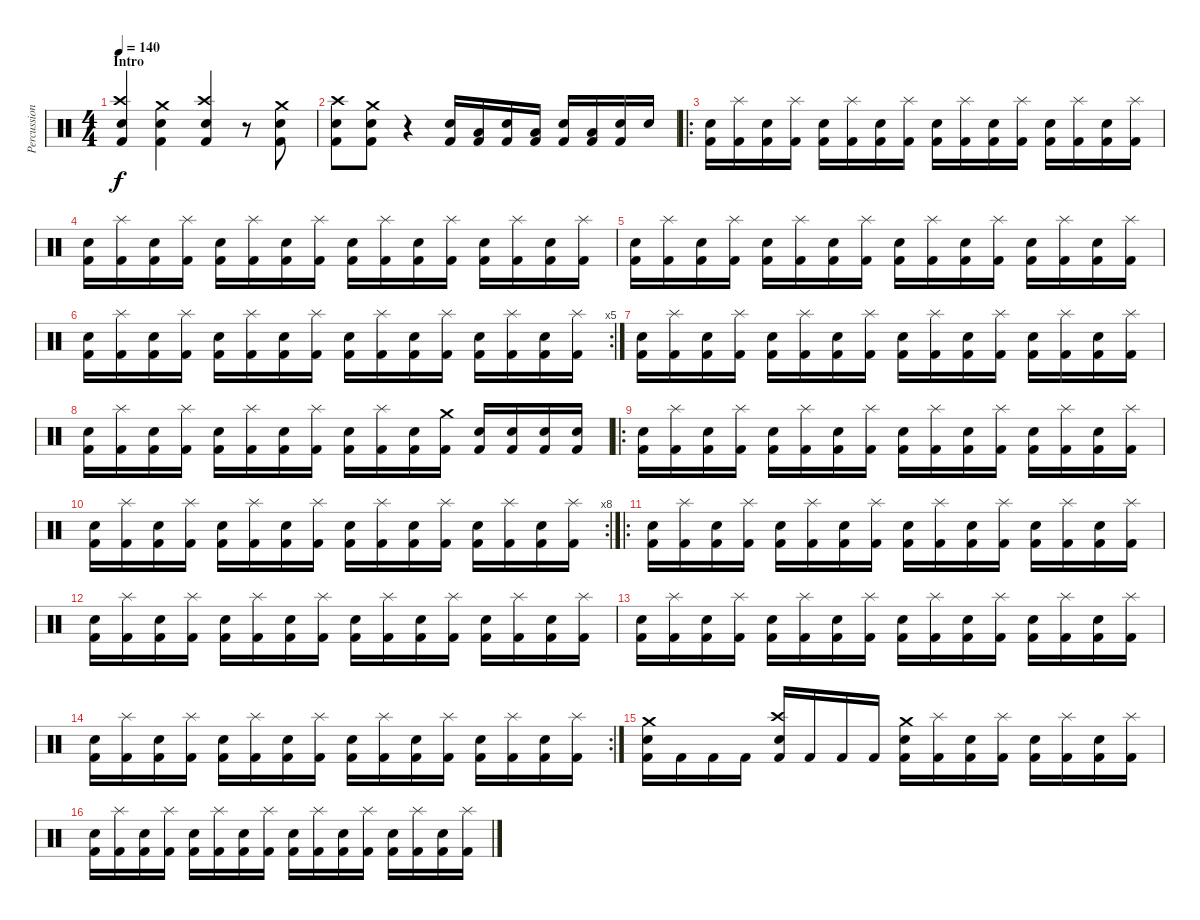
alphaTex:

\track ("Percussion" "Percussion") {instrument percussion}
\staff {score}
\articulation defaults
\ts (4 4)
\section ("" "Intro")
\tempo 140
\clef neutral
\ks c
("Electric Snare (hit)" "Crash high (hit)" "Kick (hit) 2").4{dy f} ("Electric Snare (hit)" "Crash medium (hit)" "Kick (hit) 2").4 ("Electric Snare (hit)" "Crash high (hit)" "Kick (hit) 2").4 r.8 ("Electric Snare (hit)" "Crash medium (hit)" "Kick (hit) 2").8 |
("Electric Snare (hit)" "Crash high (hit)" "Kick (hit) 2").8 ("Electric Snare (hit)" "Crash medium (hit)" "Kick (hit) 2").8 r.4 ("Electric Snare (hit)" "Kick (hit) 2").16 ("Low Floor Tom (hit)" "Kick (hit) 2").16 ("Electric Snare (hit)" "Kick (hit) 2").16 ("Low Floor Tom (hit)" "Kick (hit) 2").16 ("Electric Snare (hit)" "Kick (hit) 2").16 ("Low Floor Tom (hit)" "Kick (hit) 2").16 ("Electric Snare (hit)" "Kick (hit) 2").16 "Electric Snare (hit)".16 |
\ro
("Electric Snare (hit)" "Kick (hit) 2").16 ("Splash (hit)" "Kick (hit) 2").16 ("Electric Snare (hit)" "Kick (hit) 2").16 ("Splash (hit)" "Kick (hit) 2").16 ("Electric Snare (hit)" "Kick (hit) 2").16 ("Splash (hit)" "Kick (hit) 2").16 ("Electric Snare (hit)" "Kick (hit) 2").16 ("Splash (hit)" "Kick (hit) 2").16 ("Electric Snare (hit)" "Kick (hit) 2").16 ("Splash (hit)" "Kick (hit) 2").16 ("Electric Snare (hit)" "Kick (hit) 2").16 ("Splash (hit)" "Kick (hit) 2").16 ("Electric Snare (hit)" "Kick (hit) 2").16 ("Splash (hit)" "Kick (hit) 2").16 ("Electric Snare (hit)" "Kick (hit) 2").16 ("Splash (hit)" "Kick (hit) 2").16 |
("Electric Snare (hit)" "Kick (hit) 2").16 ("Splash (hit)" "Kick (hit) 2").16 ("Electric Snare (hit)" "Kick (hit) 2").16 ("Splash (hit)" "Kick (hit) 2").16 ("Electric Snare (hit)" "Kick (hit) 2").16 ("Splash (hit)" "Kick (hit) 2").16 ("Electric Snare (hit)" "Kick (hit) 2").16 ("Splash (hit)" "Kick (hit) 2").16 ("Electric Snare (hit)" "Kick (hit) 2").16 ("Splash (hit)" "Kick (hit) 2").16 ("Electric Snare (hit)" "Kick (hit) 2").16 ("Splash (hit)" "Kick (hit) 2").16 ("Electric Snare (hit)" "Kick (hit) 2").16 ("Splash (hit)" "Kick (hit) 2").16 ("Electric Snare (hit)" "Kick (hit) 2").16 ("Splash (hit)" "Kick (hit) 2").16 |
("Electric Snare (hit)" "Kick (hit) 2").16 ("Splash (hit)" "Kick (hit) 2").16 ("Electric Snare (hit)" "Kick (hit) 2").16 ("Splash (hit)" "Kick (hit) 2").16 ("Electric Snare (hit)" "Kick (hit) 2").16 ("Splash (hit)" "Kick (hit) 2").16 ("Electric Snare (hit)" "Kick (hit) 2").16 ("Splash (hit)" "Kick (hit) 2").16 ("Electric Snare (hit)" "Kick (hit) 2").16 ("Splash (hit)" "Kick (hit) 2").16 ("Electric Snare (hit)" "Kick (hit) 2").16 ("Splash (hit)" "Kick (hit) 2").16 ("Electric Snare (hit)" "Kick (hit) 2").16 ("Splash (hit)" "Kick (hit) 2").16 ("Electric Snare (hit)" "Kick (hit) 2").16 ("Splash (hit)" "Kick (hit) 2").16 |
\rc 5
("Electric Snare (hit)" "Kick (hit) 2").16 ("Splash (hit)" "Kick (hit) 2").16 ("Electric Snare (hit)" "Kick (hit) 2").16 ("Splash (hit)" "Kick (hit) 2").16 ("Electric Snare (hit)" "Kick (hit) 2").16 ("Splash (hit)" "Kick (hit) 2").16 ("Electric Snare (hit)" "Kick (hit) 2").16 ("Splash (hit)" "Kick (hit) 2").16 ("Electric Snare (hit)" "Kick (hit) 2").16 ("Splash (hit)" "Kick (hit) 2").16 ("Electric Snare (hit)" "Kick (hit) 2").16 ("Splash (hit)" "Kick (hit) 2").16 ("Electric Snare (hit)" "Kick (hit) 2").16 ("Splash (hit)" "Kick (hit) 2").16 ("Electric Snare (hit)" "Kick (hit) 2").16 ("Splash (hit)" "Kick (hit) 2").16 |
("Electric Snare (hit)" "Kick (hit) 2").16 ("Splash (hit)" "Kick (hit) 2").16 ("Electric Snare (hit)" "Kick (hit) 2").16 ("Splash (hit)" "Kick (hit) 2").16 ("Electric Snare (hit)" "Kick (hit) 2").16 ("Splash (hit)" "Kick (hit) 2").16 ("Electric Snare (hit)" "Kick (hit) 2").16 ("Splash (hit)" "Kick (hit) 2").16 ("Electric Snare (hit)" "Kick (hit) 2").16 ("Splash (hit)" "Kick (hit) 2").16 ("Electric Snare (hit)" "Kick (hit) 2").16 ("Splash (hit)" "Kick (hit) 2").16 ("Electric Snare (hit)" "Kick (hit) 2").16 ("Splash (hit)" "Kick (hit) 2").16 ("Electric Snare (hit)" "Kick (hit) 2").16 ("Splash (hit)" "Kick (hit) 2").16 |
("Electric Snare (hit)" "Kick (hit) 2").16 ("Splash (hit)" "Kick (hit) 2").16 ("Electric Snare (hit)" "Kick (hit) 2").16 ("Splash (hit)" "Kick (hit) 2").16 ("Electric Snare (hit)" "Kick (hit) 2").16 ("Splash (hit)" "Kick (hit) 2").16 ("Electric Snare (hit)" "Kick (hit) 2").16 ("Splash (hit)" "Kick (hit) 2").16 ("Electric Snare (hit)" "Kick (hit) 2").16 ("Splash (hit)" "Kick (hit) 2").16 ("Electric Snare (hit)" "Kick (hit) 2").16 ("Crash medium (hit)" "Kick (hit) 2").16 ("Electric Snare (hit)" "Kick (hit) 2").16 ("Electric Snare (hit)" "Kick (hit) 2").16 ("Electric Snare (hit)" "Kick (hit) 2").16 ("Electric Snare (hit)" "Kick (hit) 2").16 |
\ro
("Electric Snare (hit)" "Kick (hit) 2").16 ("Splash (hit)" "Kick (hit) 2").16 ("Electric Snare (hit)" "Kick (hit) 2").16 ("Splash (hit)" "Kick (hit) 2").16 ("Electric Snare (hit)" "Kick (hit) 2").16 ("Splash (hit)" "Kick (hit) 2").16 ("Electric Snare (hit)" "Kick (hit) 2").16 ("Splash (hit)" "Kick (hit) 2").16 ("Electric Snare (hit)" "Kick (hit) 2").16 ("Splash (hit)" "Kick (hit) 2").16 ("Electric Snare (hit)" "Kick (hit) 2").16 ("Splash (hit)" "Kick (hit) 2").16 ("Electric Snare (hit)" "Kick (hit) 2").16 ("Splash (hit)" "Kick (hit) 2").16 ("Electric Snare (hit)" "Kick (hit) 2").16 ("Splash (hit)" "Kick (hit) 2").16 |
\rc 8
("Electric Snare (hit)" "Kick (hit) 2").16 ("Splash (hit)" "Kick (hit) 2").16 ("Electric Snare (hit)" "Kick (hit) 2").16 ("Splash (hit)" "Kick (hit) 2").16 ("Electric Snare (hit)" "Kick (hit) 2").16 ("Splash (hit)" "Kick (hit) 2").16 ("Electric Snare (hit)" "Kick (hit) 2").16 ("Splash (hit)" "Kick (hit) 2").16 ("Electric Snare (hit)" "Kick (hit) 2").16 ("Splash (hit)" "Kick (hit) 2").16 ("Electric Snare (hit)" "Kick (hit) 2").16 ("Splash (hit)" "Kick (hit) 2").16 ("Electric Snare (hit)" "Kick (hit) 2").16 ("Splash (hit)" "Kick (hit) 2").16 ("Electric Snare (hit)" "Kick (hit) 2").16 ("Splash (hit)" "Kick (hit) 2").16 |
\ro
("Electric Snare (hit)" "Kick (hit) 2").16 ("Splash (hit)" "Kick (hit) 2").16 ("Electric Snare (hit)" "Kick (hit) 2").16 ("Splash (hit)" "Kick (hit) 2").16 ("Electric Snare (hit)" "Kick (hit) 2").16 ("Splash (hit)" "Kick (hit) 2").16 ("Electric Snare (hit)" "Kick (hit) 2").16 ("Splash (hit)" "Kick (hit) 2").16 ("Electric Snare (hit)" "Kick (hit) 2").16 ("Splash (hit)" "Kick (hit) 2").16 ("Electric Snare (hit)" "Kick (hit) 2").16 ("Splash (hit)" "Kick (hit) 2").16 ("Electric Snare (hit)" "Kick (hit) 2").16 ("Splash (hit)" "Kick (hit) 2").16 ("Electric Snare (hit)" "Kick (hit) 2").16 ("Splash (hit)" "Kick (hit) 2").16 |
("Electric Snare (hit)" "Kick (hit) 2").16 ("Splash (hit)" "Kick (hit) 2").16 ("Electric Snare (hit)" "Kick (hit) 2").16 ("Splash (hit)" "Kick (hit) 2").16 ("Electric Snare (hit)" "Kick (hit) 2").16 ("Splash (hit)" "Kick (hit) 2").16 ("Electric Snare (hit)" "Kick (hit) 2").16 ("Splash (hit)" "Kick (hit) 2").16 ("Electric Snare (hit)" "Kick (hit) 2").16 ("Splash (hit)" "Kick (hit) 2").16 ("Electric Snare (hit)" "Kick (hit) 2").16 ("Splash (hit)" "Kick (hit) 2").16 ("Electric Snare (hit)" "Kick (hit) 2").16 ("Splash (hit)" "Kick (hit) 2").16 ("Electric Snare (hit)" "Kick (hit) 2").16 ("Splash (hit)" "Kick (hit) 2").16 |
("Electric Snare (hit)" "Kick (hit) 2").16 ("Splash (hit)" "Kick (hit) 2").16 ("Electric Snare (hit)" "Kick (hit) 2").16 ("Splash (hit)" "Kick (hit) 2").16 ("Electric Snare (hit)" "Kick (hit) 2").16 ("Splash (hit)" "Kick (hit) 2").16 ("Electric Snare (hit)" "Kick (hit) 2").16 ("Splash (hit)" "Kick (hit) 2").16 ("Electric Snare (hit)" "Kick (hit) 2").16 ("Splash (hit)" "Kick (hit) 2").16 ("Electric Snare (hit)" "Kick (hit) 2").16 ("Splash (hit)" "Kick (hit) 2").16 ("Electric Snare (hit)" "Kick (hit) 2").16 ("Splash (hit)" "Kick (hit) 2").16 ("Electric Snare (hit)" "Kick (hit) 2").16 ("Splash (hit)" "Kick (hit) 2").16 |
\rc 2
("Electric Snare (hit)" "Kick (hit) 2").16 ("Splash (hit)" "Kick (hit) 2").16 ("Electric Snare (hit)" "Kick (hit) 2").16 ("Splash (hit)" "Kick (hit) 2").16 ("Electric Snare (hit)" "Kick (hit) 2").16 ("Splash (hit)" "Kick (hit) 2").16 ("Electric Snare (hit)" "Kick (hit) 2").16 ("Splash (hit)" "Kick (hit) 2").16 ("Electric Snare (hit)" "Kick (hit) 2").16 ("Splash (hit)" "Kick (hit) 2").16 ("Electric Snare (hit)" "Kick (hit) 2").16 ("Splash (hit)" "Kick (hit) 2").16 ("Electric Snare (hit)" "Kick (hit) 2").16 ("Splash (hit)" "Kick (hit) 2").16 ("Electric Snare (hit)" "Kick (hit) 2").16 ("Splash (hit)" "Kick (hit) 2").16 |
("Electric Snare (hit)" "Crash medium (hit)" "Kick (hit) 2").16 "Kick (hit) 2".16 "Kick (hit) 2".16 "Kick (hit) 2".16 ("Electric Snare (hit)" "Crash high (hit)" "Kick (hit) 2").16 "Kick (hit) 2".16 "Kick (hit) 2".16 "Kick (hit) 2".16 ("Electric Snare (hit)" "Crash medium (hit)" "Kick (hit) 2").16 ("Splash (hit)" "Kick (hit) 2").16 ("Electric Snare (hit)" "Kick (hit) 2").16 ("Splash (hit)" "Kick (hit) 2").16 ("Electric Snare (hit)" "Kick (hit) 2").16 ("Splash (hit)" "Kick (hit) 2").16 ("Electric Snare (hit)" "Kick (hit) 2").16 ("Splash (hit)" "Kick (hit) 2").16 |
("Electric Snare (hit)" "Kick (hit) 2").16 ("Splash (hit)" "Kick (hit) 2").16 ("Electric Snare (hit)" "Kick (hit) 2").16 ("Splash (hit)" "Kick (hit) 2").16 ("Electric Snare (hit)" "Kick (hit) 2").16 ("Splash (hit)" "Kick (hit) 2").16 ("Electric Snare (hit)" "Kick (hit) 2").16 ("Splash (hit)" "Kick (hit) 2").16 ("Electric Snare (hit)" "Kick (hit) 2").16 ("Splash (hit)" "Kick (hit) 2").16 ("Electric Snare (hit)" "Kick (hit) 2").16 ("Splash (hit)" "Kick (hit) 2").16 ("Electric Snare (hit)" "Kick (hit) 2").16 ("Splash (hit)" "Kick (hit) 2").16 ("Electric Snare (hit)" "Kick (hit) 2").16 ("Splash (hit)" "Kick (hit) 2").16
